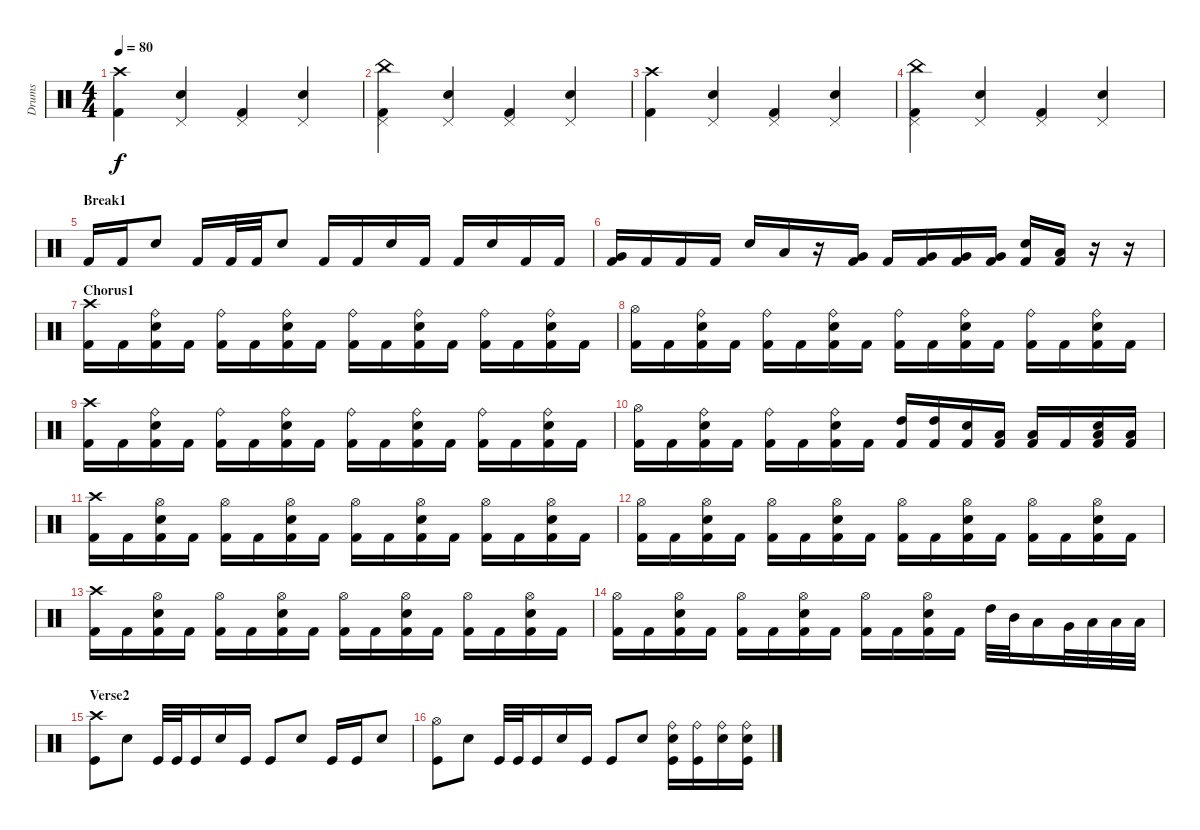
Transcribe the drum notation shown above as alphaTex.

\track ("Drums" "Drums") {instrument percussion}
\staff {score}
\articulation defaults
\ts (4 4)
\tempo 80
\clef neutral
\ks c
("Crash high (hit)" "Kick (hit) 2").4{dy f} ("Pedal Hi-Hat (hit)" "Electric Snare (hit)").4 ("Pedal Hi-Hat (hit)" "Kick (hit) 2").4 ("Pedal Hi-Hat (hit)" "Electric Snare (hit)").4 |
("Pedal Hi-Hat (hit)" "China (hit)" "Kick (hit) 2").4 ("Pedal Hi-Hat (hit)" "Electric Snare (hit)").4 ("Pedal Hi-Hat (hit)" "Kick (hit) 2").4 ("Pedal Hi-Hat (hit)" "Electric Snare (hit)").4 |
("Crash high (hit)" "Kick (hit) 2").4 ("Pedal Hi-Hat (hit)" "Electric Snare (hit)").4 ("Pedal Hi-Hat (hit)" "Kick (hit) 2").4 ("Pedal Hi-Hat (hit)" "Electric Snare (hit)").4 |
("Pedal Hi-Hat (hit)" "China (hit)" "Kick (hit) 2").4 ("Pedal Hi-Hat (hit)" "Electric Snare (hit)").4 ("Pedal Hi-Hat (hit)" "Kick (hit) 2").4 ("Pedal Hi-Hat (hit)" "Electric Snare (hit)").4 |
\section ("" "Break1")
"Kick (hit) 2".16 "Kick (hit) 2".16 "Electric Snare (hit)".8 "Kick (hit) 2".16 "Kick (hit) 2".32 "Kick (hit) 2".32 "Electric Snare (hit)".8 "Kick (hit) 2".16 "Kick (hit) 2".16 "Electric Snare (hit)".16 "Kick (hit) 2".16 "Kick (hit) 2".16 "Electric Snare (hit)".16 "Kick (hit) 2".16 "Kick (hit) 2".16 |
("Very Low Tom (hit)" "Kick (hit) 2").16 "Kick (hit) 2".16 "Kick (hit) 2".16 "Kick (hit) 2".16 "Electric Snare (hit)".16 "Low Tom (hit)".16 r.16 ("Very Low Tom (hit)" "Kick (hit) 2").16 "Kick (hit) 2".16 ("Very Low Tom (hit)" "Kick (hit) 2").16 ("Very Low Tom (hit)" "Kick (hit) 2").16 ("Very Low Tom (hit)" "Kick (hit) 2").16 ("Electric Snare (hit)" "Kick (hit) 2").16 ("Low Tom (hit)" "Kick (hit) 2").16 r.16 r.16 |
\section ("" "Chorus1")
("Crash high (hit)" "Kick (hit) 2").16 "Kick (hit) 2".16 ("Ride (bell)" "Electric Snare (hit)" "Kick (hit) 2").16 "Kick (hit) 2".16 ("Ride (bell)" "Kick (hit) 2").16 "Kick (hit) 2".16 ("Ride (bell)" "Electric Snare (hit)" "Kick (hit) 2").16 "Kick (hit) 2".16 ("Ride (bell)" "Kick (hit) 2").16 "Kick (hit) 2".16 ("Ride (bell)" "Electric Snare (hit)" "Kick (hit) 2").16 "Kick (hit) 2".16 ("Ride (bell)" "Kick (hit) 2").16 "Kick (hit) 2".16 ("Ride (bell)" "Electric Snare (hit)" "Kick (hit) 2").16 "Kick (hit) 2".16 |
("Hi-Hat (open)" "Kick (hit) 2").16 "Kick (hit) 2".16 ("Ride (bell)" "Electric Snare (hit)" "Kick (hit) 2").16 "Kick (hit) 2".16 ("Ride (bell)" "Kick (hit) 2").16 "Kick (hit) 2".16 ("Ride (bell)" "Electric Snare (hit)" "Kick (hit) 2").16 "Kick (hit) 2".16 ("Ride (bell)" "Kick (hit) 2").16 "Kick (hit) 2".16 ("Ride (bell)" "Electric Snare (hit)" "Kick (hit) 2").16 "Kick (hit) 2".16 ("Ride (bell)" "Kick (hit) 2").16 "Kick (hit) 2".16 ("Ride (bell)" "Electric Snare (hit)" "Kick (hit) 2").16 "Kick (hit) 2".16 |
("Crash high (hit)" "Kick (hit) 2").16 "Kick (hit) 2".16 ("Ride (bell)" "Electric Snare (hit)" "Kick (hit) 2").16 "Kick (hit) 2".16 ("Ride (bell)" "Kick (hit) 2").16 "Kick (hit) 2".16 ("Ride (bell)" "Electric Snare (hit)" "Kick (hit) 2").16 "Kick (hit) 2".16 ("Ride (bell)" "Kick (hit) 2").16 "Kick (hit) 2".16 ("Ride (bell)" "Electric Snare (hit)" "Kick (hit) 2").16 "Kick (hit) 2".16 ("Ride (bell)" "Kick (hit) 2").16 "Kick (hit) 2".16 ("Ride (bell)" "Electric Snare (hit)" "Kick (hit) 2").16 "Kick (hit) 2".16 |
("Hi-Hat (open)" "Kick (hit) 2").16 "Kick (hit) 2".16 ("Ride (bell)" "Electric Snare (hit)" "Kick (hit) 2").16 "Kick (hit) 2".16 ("Ride (bell)" "Kick (hit) 2").16 "Kick (hit) 2".16 ("Ride (bell)" "Electric Snare (hit)" "Kick (hit) 2").16 "Kick (hit) 2".16 ("High Tom (hit)" "Kick (hit) 2").16 ("High Tom (hit)" "Kick (hit) 2").16 ("Electric Snare (hit)" "Kick (hit) 2").16 ("Low Tom (hit)" "Kick (hit) 2").16 ("Low Tom (hit)" "Kick (hit) 2").16 "Kick (hit) 2".16 ("Low Floor Tom (hit)" "Electric Snare (hit)" "Kick (hit) 2").16 ("Low Floor Tom (hit)" "Kick (hit) 2").16 |
("Crash high (hit)" "Kick (hit) 2").16 "Kick (hit) 2".16 ("Hi-Hat (open)" "Electric Snare (hit)" "Kick (hit) 2").16 "Kick (hit) 2".16 ("Hi-Hat (open)" "Kick (hit) 2").16 "Kick (hit) 2".16 ("Hi-Hat (open)" "Electric Snare (hit)" "Kick (hit) 2").16 "Kick (hit) 2".16 ("Hi-Hat (open)" "Kick (hit) 2").16 "Kick (hit) 2".16 ("Hi-Hat (open)" "Electric Snare (hit)" "Kick (hit) 2").16 "Kick (hit) 2".16 ("Hi-Hat (open)" "Kick (hit) 2").16 "Kick (hit) 2".16 ("Hi-Hat (open)" "Electric Snare (hit)" "Kick (hit) 2").16 "Kick (hit) 2".16 |
("Hi-Hat (open)" "Kick (hit) 2").16 "Kick (hit) 2".16 ("Hi-Hat (open)" "Electric Snare (hit)" "Kick (hit) 2").16 "Kick (hit) 2".16 ("Hi-Hat (open)" "Kick (hit) 2").16 "Kick (hit) 2".16 ("Hi-Hat (open)" "Electric Snare (hit)" "Kick (hit) 2").16 "Kick (hit) 2".16 ("Hi-Hat (open)" "Kick (hit) 2").16 "Kick (hit) 2".16 ("Hi-Hat (open)" "Electric Snare (hit)" "Kick (hit) 2").16 "Kick (hit) 2".16 ("Hi-Hat (open)" "Kick (hit) 2").16 "Kick (hit) 2".16 ("Hi-Hat (open)" "Electric Snare (hit)" "Kick (hit) 2").16 "Kick (hit) 2".16 |
("Crash high (hit)" "Kick (hit) 2").16 "Kick (hit) 2".16 ("Hi-Hat (open)" "Electric Snare (hit)" "Kick (hit) 2").16 "Kick (hit) 2".16 ("Hi-Hat (open)" "Kick (hit) 2").16 "Kick (hit) 2".16 ("Hi-Hat (open)" "Electric Snare (hit)" "Kick (hit) 2").16 "Kick (hit) 2".16 ("Hi-Hat (open)" "Kick (hit) 2").16 "Kick (hit) 2".16 ("Hi-Hat (open)" "Electric Snare (hit)" "Kick (hit) 2").16 "Kick (hit) 2".16 ("Hi-Hat (open)" "Kick (hit) 2").16 "Kick (hit) 2".16 ("Hi-Hat (open)" "Electric Snare (hit)" "Kick (hit) 2").16 "Kick (hit) 2".16 |
("Hi-Hat (open)" "Kick (hit) 2").16 "Kick (hit) 2".16 ("Hi-Hat (open)" "Electric Snare (hit)" "Kick (hit) 2").16 "Kick (hit) 2".16 ("Hi-Hat (open)" "Kick (hit) 2").16 "Kick (hit) 2".16 ("Hi-Hat (open)" "Electric Snare (hit)" "Kick (hit) 2").16 "Kick (hit) 2".16 ("Hi-Hat (open)" "Kick (hit) 2").16 "Kick (hit) 2".16 ("Hi-Hat (open)" "Electric Snare (hit)" "Kick (hit) 2").16 "Kick (hit) 2".16 "High Tom (hit)".32 "Mid Tom (hit)".32 "Low Tom (hit)".16 "Very Low Tom (hit)".32 "Low Floor Tom (hit)".32 "Low Floor Tom (hit)".32 "Low Floor Tom (hit)".32 |
\section ("" "Verse2")
("Crash high (hit)" "Kick (hit)").8 "Electric Snare (hit)".8 "Kick (hit)".32 "Kick (hit)".32 "Kick (hit)".16 "Electric Snare (hit)".16 "Kick (hit)".16 "Kick (hit)".8 "Electric Snare (hit)".8 "Kick (hit)".16 "Kick (hit)".16 "Electric Snare (hit)".8 |
("Hi-Hat (open)" "Kick (hit)").8 "Electric Snare (hit)".8 "Kick (hit)".32 "Kick (hit)".32 "Kick (hit)".16 "Electric Snare (hit)".16 "Kick (hit)".16 "Kick (hit)".8 "Electric Snare (hit)".8 ("Ride (bell)" "Electric Snare (hit)" "Kick (hit)").16 ("Ride (bell)" "Kick (hit)").16 ("Ride (bell)" "Electric Snare (hit)").16 ("Ride (bell)" "Electric Snare (hit)" "Kick (hit)").16
